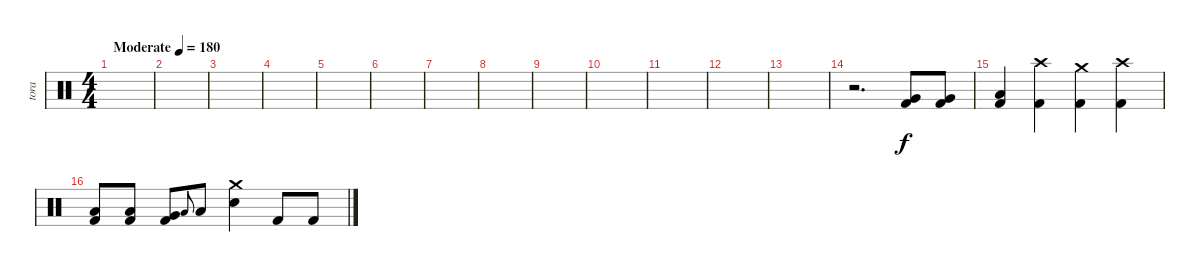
\track ("tora" "tora") {instrument percussion}
\staff {score}
\articulation defaults
\ts (4 4)
\tempo (180 "Moderate")
\clef neutral
\ks c
|
|
|
|
|
|
|
|
|
|
|
|
|
r.2{d} ("Very Low Tom (hit)" "Kick (hit) 2").8 ("Very Low Tom (hit)" "Kick (hit) 2").8 |
("Low Floor Tom (hit)" "Kick (hit) 2").4 ("Crash high (hit)" "Kick (hit) 2").4 ("Crash medium (hit)" "Kick (hit) 2").4 ("Crash high (hit)" "Kick (hit) 2").4 |
("Low Floor Tom (hit)" "Kick (hit) 2").8 ("Low Tom (hit)" "Kick (hit) 2").8 ("Very Low Tom (hit)" "Kick (hit) 2").8 "Low Floor Tom (hit)".8{gr onbeat} "Low Floor Tom (hit)".8 ("Crash medium (hit)" "Snare (hit) 2").4 "Kick (hit) 2".8 "Kick (hit) 2".8
